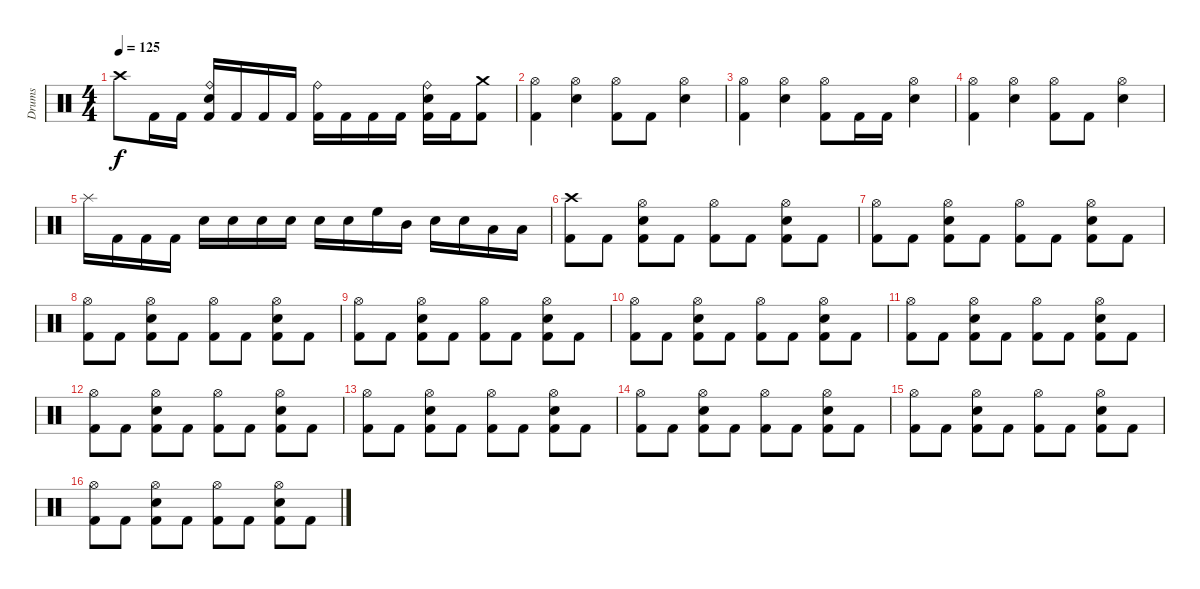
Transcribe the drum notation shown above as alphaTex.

\track ("Drums" "Drums") {instrument percussion}
\staff {score}
\articulation defaults
\ts (4 4)
\tempo 125
\clef neutral
\ks c "Crash high (hit)".8{dy f} "Kick (hit) 2".16 "Kick (hit) 2".16
("Ride (bell)" "Electric Snare (hit)" "Kick (hit) 2").16 "Kick (hit) 2".16 "Kick (hit) 2".16 "Kick (hit) 2".16 ("Ride (bell)" "Kick (hit) 2").16 "Kick (hit) 2".16 "Kick (hit) 2".16 "Kick (hit) 2".16 ("Ride (bell)" "Electric Snare (hit)" "Kick (hit) 2").16 "Kick (hit) 2".16 ("Crash medium (hit)" "Kick (hit) 2").8 |
("Hi-Hat (open)" "Kick (hit) 2").4 ("Hi-Hat (open)" "Electric Snare (hit)").4 ("Hi-Hat (open)" "Kick (hit) 2").8 "Kick (hit) 2".8 ("Hi-Hat (open)" "Electric Snare (hit)").4 |
("Hi-Hat (open)" "Kick (hit) 2").4 ("Hi-Hat (open)" "Electric Snare (hit)").4 ("Hi-Hat (open)" "Kick (hit) 2").8 "Kick (hit) 2".16 "Kick (hit) 2".16 ("Hi-Hat (open)" "Electric Snare (hit)").4 |
("Hi-Hat (open)" "Kick (hit) 2").4 ("Hi-Hat (open)" "Electric Snare (hit)").4 ("Hi-Hat (open)" "Kick (hit) 2").8 "Kick (hit) 2".8 ("Hi-Hat (open)" "Electric Snare (hit)").4 |
"Splash (hit)".16 "Kick (hit) 2".16 "Kick (hit) 2".16 "Kick (hit) 2".16 "Electric Snare (hit)".16 "Electric Snare (hit)".16 "Electric Snare (hit)".16 "Electric Snare (hit)".16 "Electric Snare (hit)".16 "Electric Snare (hit)".16 "High Floor Tom (hit)".16 "Mid Tom (hit)".16 "Electric Snare (hit)".16 "Electric Snare (hit)".16 "Low Tom (hit)".16 "Low Floor Tom (hit)".16 |
("Crash high (hit)" "Kick (hit) 2").8 "Kick (hit) 2".8 ("Hi-Hat (open)" "Electric Snare (hit)" "Kick (hit) 2").8 "Kick (hit) 2".8 ("Hi-Hat (open)" "Kick (hit) 2").8 "Kick (hit) 2".8 ("Hi-Hat (open)" "Electric Snare (hit)" "Kick (hit) 2").8 "Kick (hit) 2".8 |
("Hi-Hat (open)" "Kick (hit) 2").8 "Kick (hit) 2".8 ("Hi-Hat (open)" "Electric Snare (hit)" "Kick (hit) 2").8 "Kick (hit) 2".8 ("Hi-Hat (open)" "Kick (hit) 2").8 "Kick (hit) 2".8 ("Hi-Hat (open)" "Electric Snare (hit)" "Kick (hit) 2").8 "Kick (hit) 2".8 |
("Hi-Hat (open)" "Kick (hit) 2").8 "Kick (hit) 2".8 ("Hi-Hat (open)" "Electric Snare (hit)" "Kick (hit) 2").8 "Kick (hit) 2".8 ("Hi-Hat (open)" "Kick (hit) 2").8 "Kick (hit) 2".8 ("Hi-Hat (open)" "Electric Snare (hit)" "Kick (hit) 2").8 "Kick (hit) 2".8 |
("Hi-Hat (open)" "Kick (hit) 2").8 "Kick (hit) 2".8 ("Hi-Hat (open)" "Electric Snare (hit)" "Kick (hit) 2").8 "Kick (hit) 2".8 ("Hi-Hat (open)" "Kick (hit) 2").8 "Kick (hit) 2".8 ("Hi-Hat (open)" "Electric Snare (hit)" "Kick (hit) 2").8 "Kick (hit) 2".8 |
("Hi-Hat (open)" "Kick (hit) 2").8 "Kick (hit) 2".8 ("Hi-Hat (open)" "Electric Snare (hit)" "Kick (hit) 2").8 "Kick (hit) 2".8 ("Hi-Hat (open)" "Kick (hit) 2").8 "Kick (hit) 2".8 ("Hi-Hat (open)" "Electric Snare (hit)" "Kick (hit) 2").8 "Kick (hit) 2".8 |
("Hi-Hat (open)" "Kick (hit) 2").8 "Kick (hit) 2".8 ("Hi-Hat (open)" "Electric Snare (hit)" "Kick (hit) 2").8 "Kick (hit) 2".8 ("Hi-Hat (open)" "Kick (hit) 2").8 "Kick (hit) 2".8 ("Hi-Hat (open)" "Electric Snare (hit)" "Kick (hit) 2").8 "Kick (hit) 2".8 |
("Hi-Hat (open)" "Kick (hit) 2").8 "Kick (hit) 2".8 ("Hi-Hat (open)" "Electric Snare (hit)" "Kick (hit) 2").8 "Kick (hit) 2".8 ("Hi-Hat (open)" "Kick (hit) 2").8 "Kick (hit) 2".8 ("Hi-Hat (open)" "Electric Snare (hit)" "Kick (hit) 2").8 "Kick (hit) 2".8 |
("Hi-Hat (open)" "Kick (hit) 2").8 "Kick (hit) 2".8 ("Hi-Hat (open)" "Electric Snare (hit)" "Kick (hit) 2").8 "Kick (hit) 2".8 ("Hi-Hat (open)" "Kick (hit) 2").8 "Kick (hit) 2".8 ("Hi-Hat (open)" "Electric Snare (hit)" "Kick (hit) 2").8 "Kick (hit) 2".8 |
("Hi-Hat (open)" "Kick (hit) 2").8 "Kick (hit) 2".8 ("Hi-Hat (open)" "Electric Snare (hit)" "Kick (hit) 2").8 "Kick (hit) 2".8 ("Hi-Hat (open)" "Kick (hit) 2").8 "Kick (hit) 2".8 ("Hi-Hat (open)" "Electric Snare (hit)" "Kick (hit) 2").8 "Kick (hit) 2".8 |
("Hi-Hat (open)" "Kick (hit) 2").8 "Kick (hit) 2".8 ("Hi-Hat (open)" "Electric Snare (hit)" "Kick (hit) 2").8 "Kick (hit) 2".8 ("Hi-Hat (open)" "Kick (hit) 2").8 "Kick (hit) 2".8 ("Hi-Hat (open)" "Electric Snare (hit)" "Kick (hit) 2").8 "Kick (hit) 2".8 |
("Hi-Hat (open)" "Kick (hit) 2").8 "Kick (hit) 2".8 ("Hi-Hat (open)" "Electric Snare (hit)" "Kick (hit) 2").8 "Kick (hit) 2".8 ("Hi-Hat (open)" "Kick (hit) 2").8 "Kick (hit) 2".8 ("Hi-Hat (open)" "Electric Snare (hit)" "Kick (hit) 2").8 "Kick (hit) 2".8
